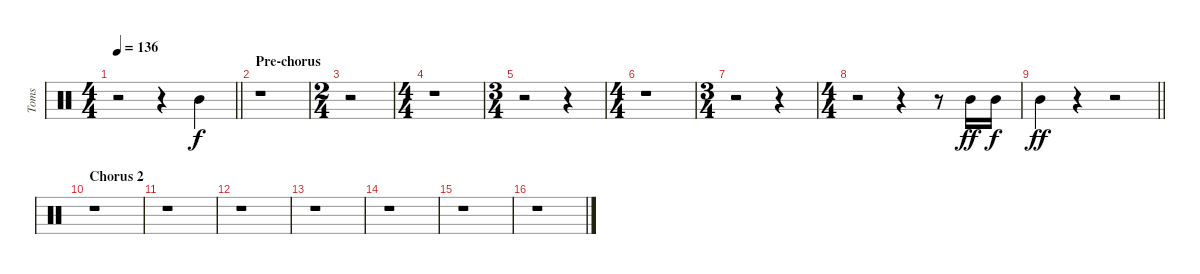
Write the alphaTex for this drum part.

\track ("Toms" "Toms") {instrument percussion}
\staff {score}
\articulation defaults
\ts (4 4)
\tempo 136
\clef neutral
\barLineRight lightlight
\ks c
r.2{dy ff} r.4 "Mid Tom (hit)".4{dy f} |
\section ("" "Pre-chorus")
r.1 |
\ts (2 4)
r.2 |
\ts (4 4)
r.1 |
\ts (3 4)
r.2 r.4 |
\ts (4 4)
r.1 |
\ts (3 4)
r.2 r.4 |
\ts (4 4)
r.2 r.4 r.8 "Mid Tom (hit)".16{dy ff} "Mid Tom (hit)".16{dy f} |
\barLineRight lightlight "Mid Tom (hit)".4{dy ff}
r.4 r.2 |
\section ("" "Chorus 2")
r.1 |
r.1 |
r.1 |
r.1 |
r.1 |
r.1 |
r.1
